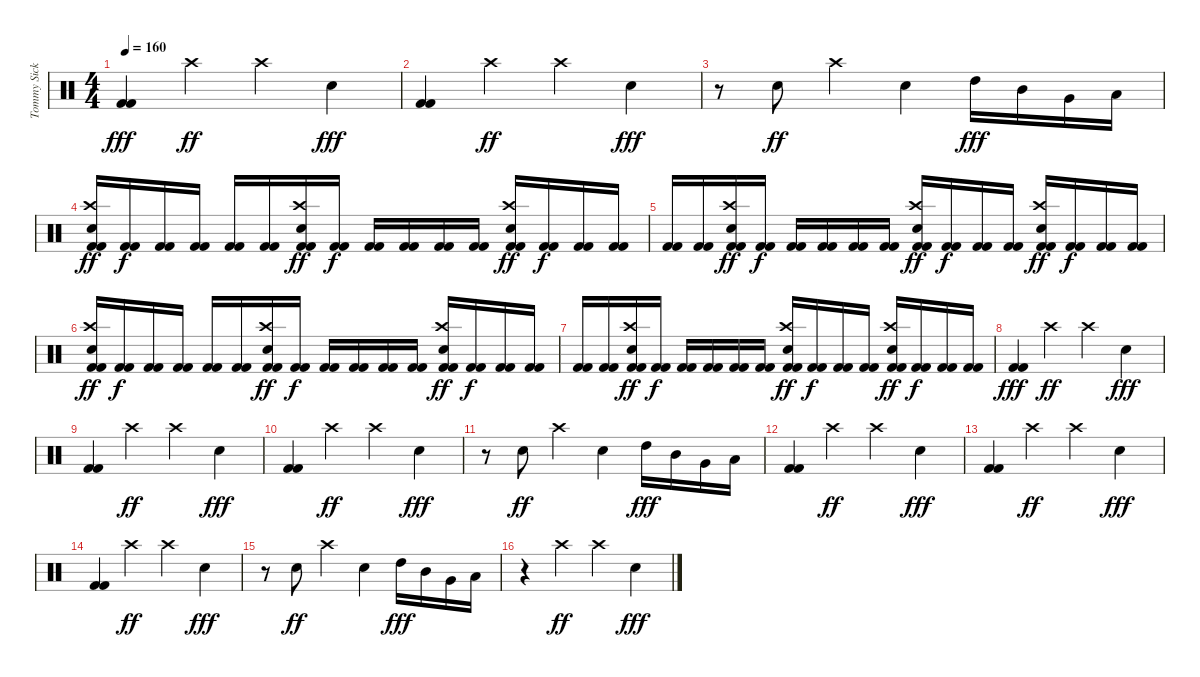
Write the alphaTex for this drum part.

\track ("Tommy Sickles" "Tommy Sick") {instrument percussion}
\staff {score}
\articulation defaults
\ts (4 4)
\tempo 160
\clef neutral
\ks c
("Kick (hit) 2" "Kick (hit) 2").4{dy fff} "Crash high (hit)".4{dy ff} "Crash high (hit)".4 "Electric Snare (hit)".4{dy fff} |
("Kick (hit) 2" "Kick (hit) 2").4 "Crash high (hit)".4{dy ff} "Crash high (hit)".4 "Electric Snare (hit)".4{dy fff} |
r.8 "Electric Snare (hit)".8{dy ff} "Crash high (hit)".4 "Electric Snare (hit)".4 "High Tom (hit)".16{dy fff} "Mid Tom (hit)".16 "Very Low Tom (hit)".16 "Low Floor Tom (hit)".16 |
("Crash high (hit)" "Kick (hit) 2" "Kick (hit) 2" "Electric Snare (hit)").16{dy ff} ("Kick (hit) 2" "Kick (hit) 2").16{dy f} ("Kick (hit) 2" "Kick (hit) 2").16 ("Kick (hit) 2" "Kick (hit) 2").16 ("Kick (hit) 2" "Kick (hit) 2").16 ("Kick (hit) 2" "Kick (hit) 2").16 ("Crash high (hit)" "Kick (hit) 2" "Kick (hit) 2" "Electric Snare (hit)").16{dy ff} ("Kick (hit) 2" "Kick (hit) 2").16{dy f} ("Kick (hit) 2" "Kick (hit) 2").16 ("Kick (hit) 2" "Kick (hit) 2").16 ("Kick (hit) 2" "Kick (hit) 2").16 ("Kick (hit) 2" "Kick (hit) 2").16 ("Crash high (hit)" "Kick (hit) 2" "Kick (hit) 2" "Electric Snare (hit)").16{dy ff} ("Kick (hit) 2" "Kick (hit) 2").16{dy f} ("Kick (hit) 2" "Kick (hit) 2").16 ("Kick (hit) 2" "Kick (hit) 2").16 |
("Kick (hit) 2" "Kick (hit) 2").16 ("Kick (hit) 2" "Kick (hit) 2").16 ("Crash high (hit)" "Kick (hit) 2" "Kick (hit) 2" "Electric Snare (hit)").16{dy ff} ("Kick (hit) 2" "Kick (hit) 2").16{dy f} ("Kick (hit) 2" "Kick (hit) 2").16 ("Kick (hit) 2" "Kick (hit) 2").16 ("Kick (hit) 2" "Kick (hit) 2").16 ("Kick (hit) 2" "Kick (hit) 2").16 ("Crash high (hit)" "Kick (hit) 2" "Kick (hit) 2" "Electric Snare (hit)").16{dy ff} ("Kick (hit) 2" "Kick (hit) 2").16{dy f} ("Kick (hit) 2" "Kick (hit) 2").16 ("Kick (hit) 2" "Kick (hit) 2").16 ("Crash high (hit)" "Kick (hit) 2" "Kick (hit) 2" "Electric Snare (hit)").16{dy ff} ("Kick (hit) 2" "Kick (hit) 2").16{dy f} ("Kick (hit) 2" "Kick (hit) 2").16 ("Kick (hit) 2" "Kick (hit) 2").16 |
("Crash high (hit)" "Kick (hit) 2" "Kick (hit) 2" "Electric Snare (hit)").16{dy ff} ("Kick (hit) 2" "Kick (hit) 2").16{dy f} ("Kick (hit) 2" "Kick (hit) 2").16 ("Kick (hit) 2" "Kick (hit) 2").16 ("Kick (hit) 2" "Kick (hit) 2").16 ("Kick (hit) 2" "Kick (hit) 2").16 ("Crash high (hit)" "Kick (hit) 2" "Kick (hit) 2" "Electric Snare (hit)").16{dy ff} ("Kick (hit) 2" "Kick (hit) 2").16{dy f} ("Kick (hit) 2" "Kick (hit) 2").16 ("Kick (hit) 2" "Kick (hit) 2").16 ("Kick (hit) 2" "Kick (hit) 2").16 ("Kick (hit) 2" "Kick (hit) 2").16 ("Crash high (hit)" "Kick (hit) 2" "Kick (hit) 2" "Electric Snare (hit)").16{dy ff} ("Kick (hit) 2" "Kick (hit) 2").16{dy f} ("Kick (hit) 2" "Kick (hit) 2").16 ("Kick (hit) 2" "Kick (hit) 2").16 |
("Kick (hit) 2" "Kick (hit) 2").16 ("Kick (hit) 2" "Kick (hit) 2").16 ("Crash high (hit)" "Kick (hit) 2" "Kick (hit) 2" "Electric Snare (hit)").16{dy ff} ("Kick (hit) 2" "Kick (hit) 2").16{dy f} ("Kick (hit) 2" "Kick (hit) 2").16 ("Kick (hit) 2" "Kick (hit) 2").16 ("Kick (hit) 2" "Kick (hit) 2").16 ("Kick (hit) 2" "Kick (hit) 2").16 ("Crash high (hit)" "Kick (hit) 2" "Kick (hit) 2" "Electric Snare (hit)").16{dy ff} ("Kick (hit) 2" "Kick (hit) 2").16{dy f} ("Kick (hit) 2" "Kick (hit) 2").16 ("Kick (hit) 2" "Kick (hit) 2").16 ("Crash high (hit)" "Kick (hit) 2" "Kick (hit) 2" "Electric Snare (hit)").16{dy ff} ("Kick (hit) 2" "Kick (hit) 2").16{dy f} ("Kick (hit) 2" "Kick (hit) 2").16 ("Kick (hit) 2" "Kick (hit) 2").16 |
("Kick (hit) 2" "Kick (hit) 2").4{dy fff} "Crash high (hit)".4{dy ff} "Crash high (hit)".4 "Electric Snare (hit)".4{dy fff} |
("Kick (hit) 2" "Kick (hit) 2").4 "Crash high (hit)".4{dy ff} "Crash high (hit)".4 "Electric Snare (hit)".4{dy fff} |
("Kick (hit) 2" "Kick (hit) 2").4 "Crash high (hit)".4{dy ff} "Crash high (hit)".4 "Electric Snare (hit)".4{dy fff} |
r.8 "Electric Snare (hit)".8{dy ff} "Crash high (hit)".4 "Electric Snare (hit)".4 "High Tom (hit)".16{dy fff} "Mid Tom (hit)".16 "Very Low Tom (hit)".16 "Low Floor Tom (hit)".16 |
("Kick (hit) 2" "Kick (hit) 2").4 "Crash high (hit)".4{dy ff} "Crash high (hit)".4 "Electric Snare (hit)".4{dy fff} |
("Kick (hit) 2" "Kick (hit) 2").4 "Crash high (hit)".4{dy ff} "Crash high (hit)".4 "Electric Snare (hit)".4{dy fff} |
("Kick (hit) 2" "Kick (hit) 2").4 "Crash high (hit)".4{dy ff} "Crash high (hit)".4 "Electric Snare (hit)".4{dy fff} |
r.8 "Electric Snare (hit)".8{dy ff} "Crash high (hit)".4 "Electric Snare (hit)".4 "High Tom (hit)".16{dy fff} "Mid Tom (hit)".16 "Very Low Tom (hit)".16 "Low Floor Tom (hit)".16 |
r.4 "Crash high (hit)".4{dy ff} "Crash high (hit)".4 "Electric Snare (hit)".4{dy fff}
